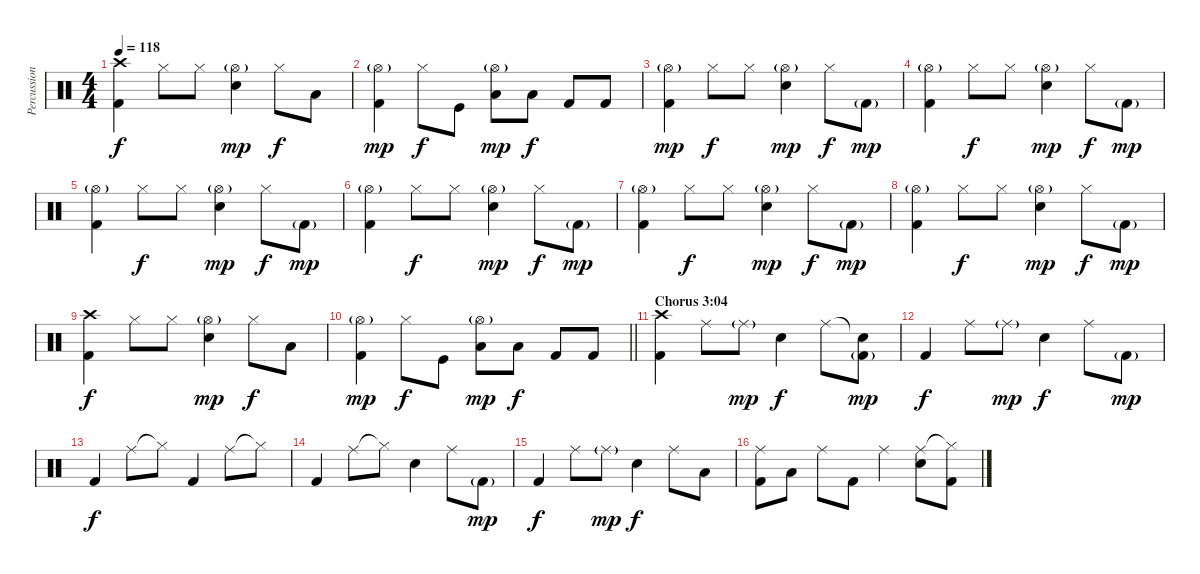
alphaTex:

\track ("Percussion" "Percussion") {instrument percussion}
\staff {score}
\articulation defaults
\ts (4 4)
\tempo 118
\clef neutral
\ks c
("Crash high (hit)" "Kick (hit) 2").4{dy f} "Hi-Hat (closed)".8 "Hi-Hat (closed)".8 ("Hi-Hat (open)"{g} "Electric Snare (hit)").4{dy mp} "Hi-Hat (closed)".8{dy f} "Low Floor Tom (hit)".8 |
("Hi-Hat (open)"{g} "Kick (hit) 2").4{dy mp} "Hi-Hat (closed)".8{dy f} "Kick (hit)".8 ("Hi-Hat (open)"{g} "Low Floor Tom (hit)").8{dy mp} "Low Floor Tom (hit)".8{dy f} "Kick (hit) 2".8 "Kick (hit) 2".8 |
("Hi-Hat (open)"{g} "Kick (hit) 2").4{dy mp} "Hi-Hat (closed)".8{dy f} "Hi-Hat (closed)".8 ("Hi-Hat (open)"{g} "Electric Snare (hit)").4{dy mp} "Hi-Hat (closed)".8{dy f} "Kick (hit) 2"{g}.8{dy mp} |
("Hi-Hat (open)"{g} "Kick (hit) 2").4 "Hi-Hat (closed)".8{dy f} "Hi-Hat (closed)".8 ("Hi-Hat (open)"{g} "Electric Snare (hit)").4{dy mp} "Hi-Hat (closed)".8{dy f} "Kick (hit) 2"{g}.8{dy mp} |
("Hi-Hat (open)"{g} "Kick (hit) 2").4 "Hi-Hat (closed)".8{dy f} "Hi-Hat (closed)".8 ("Hi-Hat (open)"{g} "Electric Snare (hit)").4{dy mp} "Hi-Hat (closed)".8{dy f} "Kick (hit) 2"{g}.8{dy mp} |
("Hi-Hat (open)"{g} "Kick (hit) 2").4 "Hi-Hat (closed)".8{dy f} "Hi-Hat (closed)".8 ("Hi-Hat (open)"{g} "Electric Snare (hit)").4{dy mp} "Hi-Hat (closed)".8{dy f} "Kick (hit) 2"{g}.8{dy mp} |
("Hi-Hat (open)"{g} "Kick (hit) 2").4 "Hi-Hat (closed)".8{dy f} "Hi-Hat (closed)".8 ("Hi-Hat (open)"{g} "Electric Snare (hit)").4{dy mp} "Hi-Hat (closed)".8{dy f} "Kick (hit) 2"{g}.8{dy mp} |
("Hi-Hat (open)"{g} "Kick (hit) 2").4 "Hi-Hat (closed)".8{dy f} "Hi-Hat (closed)".8 ("Hi-Hat (open)"{g} "Electric Snare (hit)").4{dy mp} "Hi-Hat (closed)".8{dy f} "Kick (hit) 2"{g}.8{dy mp} |
("Crash high (hit)" "Kick (hit) 2").4{dy f} "Hi-Hat (closed)".8 "Hi-Hat (closed)".8 ("Hi-Hat (open)"{g} "Electric Snare (hit)").4{dy mp} "Hi-Hat (closed)".8{dy f} "Low Floor Tom (hit)".8 |
\barLineRight lightlight
("Hi-Hat (open)"{g} "Kick (hit) 2").4{dy mp} "Hi-Hat (closed)".8{dy f} "Kick (hit)".8 ("Hi-Hat (open)"{g} "Low Floor Tom (hit)").8{dy mp} "Low Floor Tom (hit)".8{dy f} "Kick (hit) 2".8 "Kick (hit) 2".8 |
\section ("" "Chorus 3:04")
("Crash high (hit)" "Kick (hit) 2").4 "Ride (middle)".8 "Ride (middle)"{g}.8{dy mp} "Electric Snare (hit)".4{dy f} "Ride (middle)".8 ("Snare (hit)"{t} "Kick (hit) 2"{g}).8{dy mp} |
"Kick (hit) 2".4{dy f} "Ride (middle)".8 "Ride (middle)"{g}.8{dy mp} "Electric Snare (hit)".4{dy f} "Ride (middle)".8 "Kick (hit) 2"{g}.8{dy mp} |
"Kick (hit) 2".4{dy f} "Ride (middle)".8 "Hi-Hat (closed)"{t}.8 "Kick (hit) 2".4 "Ride (middle)".8 "Hi-Hat (closed)"{t}.8 |
"Kick (hit) 2".4 "Ride (middle)".8 "Hi-Hat (closed)"{t}.8 "Electric Snare (hit)".4 "Ride (middle)".8 "Kick (hit) 2"{g}.8{dy mp} |
"Kick (hit) 2".4{dy f} "Ride (middle)".8 "Ride (middle)"{g}.8{dy mp} "Electric Snare (hit)".4{dy f} "Ride (middle)".8 "Low Floor Tom (hit)".8 |
("Ride (middle)" "Kick (hit) 2").8 "Low Floor Tom (hit)".8 "Ride (middle)".8 "Kick (hit) 2".8 "Ride (middle)".4 ("Ride (middle)" "Electric Snare (hit)").8 ("Hi-Hat (closed)"{t} "Kick (hit) 2").8
